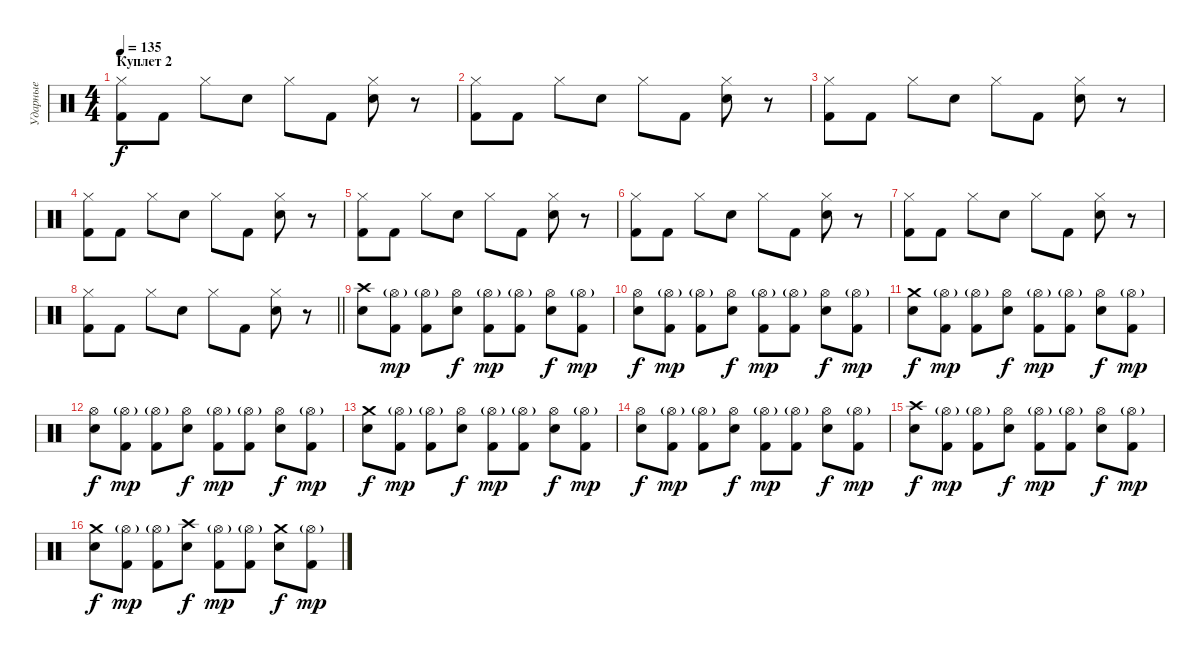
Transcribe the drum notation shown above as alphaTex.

\track ("Ударные" "Ударные") {instrument percussion}
\staff {score}
\articulation defaults
\ts (4 4)
\section ("" "Куплет 2")
\tempo 135
\clef neutral
\ks c
("Hi-Hat (closed)" "Kick (hit) 2").8{dy f} "Kick (hit) 2".8 "Hi-Hat (closed)".8 "Electric Snare (hit)".8 "Hi-Hat (closed)".8 "Kick (hit) 2".8 ("Hi-Hat (closed)" "Electric Snare (hit)").8 r.8 |
("Hi-Hat (closed)" "Kick (hit) 2").8 "Kick (hit) 2".8 "Hi-Hat (closed)".8 "Electric Snare (hit)".8 "Hi-Hat (closed)".8 "Kick (hit) 2".8 ("Hi-Hat (closed)" "Electric Snare (hit)").8 r.8 |
("Hi-Hat (closed)" "Kick (hit) 2").8 "Kick (hit) 2".8 "Hi-Hat (closed)".8 "Electric Snare (hit)".8 "Hi-Hat (closed)".8 "Kick (hit) 2".8 ("Hi-Hat (closed)" "Electric Snare (hit)").8 r.8 |
("Hi-Hat (closed)" "Kick (hit) 2").8 "Kick (hit) 2".8 "Hi-Hat (closed)".8 "Electric Snare (hit)".8 "Hi-Hat (closed)".8 "Kick (hit) 2".8 ("Hi-Hat (closed)" "Electric Snare (hit)").8 r.8 |
("Hi-Hat (closed)" "Kick (hit) 2").8 "Kick (hit) 2".8 "Hi-Hat (closed)".8 "Electric Snare (hit)".8 "Hi-Hat (closed)".8 "Kick (hit) 2".8 ("Hi-Hat (closed)" "Electric Snare (hit)").8 r.8 |
("Hi-Hat (closed)" "Kick (hit) 2").8 "Kick (hit) 2".8 "Hi-Hat (closed)".8 "Electric Snare (hit)".8 "Hi-Hat (closed)".8 "Kick (hit) 2".8 ("Hi-Hat (closed)" "Electric Snare (hit)").8 r.8 |
("Hi-Hat (closed)" "Kick (hit) 2").8 "Kick (hit) 2".8 "Hi-Hat (closed)".8 "Electric Snare (hit)".8 "Hi-Hat (closed)".8 "Kick (hit) 2".8 ("Hi-Hat (closed)" "Electric Snare (hit)").8 r.8 |
\barLineRight lightlight
("Hi-Hat (closed)" "Kick (hit) 2").8 "Kick (hit) 2".8 "Hi-Hat (closed)".8 "Electric Snare (hit)".8 "Hi-Hat (closed)".8 "Kick (hit) 2".8 ("Hi-Hat (closed)" "Electric Snare (hit)").8 r.8 |
\section ("" "")
("Crash high (hit)" "Electric Snare (hit)").8 ("Hi-Hat (open)"{g} "Kick (hit) 2").8{dy mp} ("Hi-Hat (open)"{g} "Kick (hit) 2").8 ("Hi-Hat (open)" "Electric Snare (hit)").8{dy f} ("Hi-Hat (open)"{g} "Kick (hit) 2").8{dy mp} ("Hi-Hat (open)"{g} "Kick (hit) 2").8 ("Hi-Hat (open)" "Electric Snare (hit)").8{dy f} ("Hi-Hat (open)"{g} "Kick (hit) 2").8{dy mp} |
("Hi-Hat (open)" "Electric Snare (hit)").8{dy f} ("Hi-Hat (open)"{g} "Kick (hit) 2").8{dy mp} ("Hi-Hat (open)"{g} "Kick (hit) 2").8 ("Hi-Hat (open)" "Electric Snare (hit)").8{dy f} ("Hi-Hat (open)"{g} "Kick (hit) 2").8{dy mp} ("Hi-Hat (open)"{g} "Kick (hit) 2").8 ("Hi-Hat (open)" "Electric Snare (hit)").8{dy f} ("Hi-Hat (open)"{g} "Kick (hit) 2").8{dy mp} |
("Crash medium (hit)" "Electric Snare (hit)").8{dy f} ("Hi-Hat (open)"{g} "Kick (hit) 2").8{dy mp} ("Hi-Hat (open)"{g} "Kick (hit) 2").8 ("Hi-Hat (open)" "Electric Snare (hit)").8{dy f} ("Hi-Hat (open)"{g} "Kick (hit) 2").8{dy mp} ("Hi-Hat (open)"{g} "Kick (hit) 2").8 ("Hi-Hat (open)" "Electric Snare (hit)").8{dy f} ("Hi-Hat (open)"{g} "Kick (hit) 2").8{dy mp} |
("Hi-Hat (open)" "Electric Snare (hit)").8{dy f} ("Hi-Hat (open)"{g} "Kick (hit) 2").8{dy mp} ("Hi-Hat (open)"{g} "Kick (hit) 2").8 ("Hi-Hat (open)" "Electric Snare (hit)").8{dy f} ("Hi-Hat (open)"{g} "Kick (hit) 2").8{dy mp} ("Hi-Hat (open)"{g} "Kick (hit) 2").8 ("Hi-Hat (open)" "Electric Snare (hit)").8{dy f} ("Hi-Hat (open)"{g} "Kick (hit) 2").8{dy mp} |
("Crash medium (hit)" "Electric Snare (hit)").8{dy f} ("Hi-Hat (open)"{g} "Kick (hit) 2").8{dy mp} ("Hi-Hat (open)"{g} "Kick (hit) 2").8 ("Hi-Hat (open)" "Electric Snare (hit)").8{dy f} ("Hi-Hat (open)"{g} "Kick (hit) 2").8{dy mp} ("Hi-Hat (open)"{g} "Kick (hit) 2").8 ("Hi-Hat (open)" "Electric Snare (hit)").8{dy f} ("Hi-Hat (open)"{g} "Kick (hit) 2").8{dy mp} |
("Hi-Hat (open)" "Electric Snare (hit)").8{dy f} ("Hi-Hat (open)"{g} "Kick (hit) 2").8{dy mp} ("Hi-Hat (open)"{g} "Kick (hit) 2").8 ("Hi-Hat (open)" "Electric Snare (hit)").8{dy f} ("Hi-Hat (open)"{g} "Kick (hit) 2").8{dy mp} ("Hi-Hat (open)"{g} "Kick (hit) 2").8 ("Hi-Hat (open)" "Electric Snare (hit)").8{dy f} ("Hi-Hat (open)"{g} "Kick (hit) 2").8{dy mp} |
("Crash high (hit)" "Electric Snare (hit)").8{dy f} ("Hi-Hat (open)"{g} "Kick (hit) 2").8{dy mp} ("Hi-Hat (open)"{g} "Kick (hit) 2").8 ("Hi-Hat (open)" "Electric Snare (hit)").8{dy f} ("Hi-Hat (open)"{g} "Kick (hit) 2").8{dy mp} ("Hi-Hat (open)"{g} "Kick (hit) 2").8 ("Hi-Hat (open)" "Electric Snare (hit)").8{dy f} ("Hi-Hat (open)"{g} "Kick (hit) 2").8{dy mp} |
("Crash medium (hit)" "Electric Snare (hit)").8{dy f} ("Hi-Hat (open)"{g} "Kick (hit) 2").8{dy mp} ("Hi-Hat (open)"{g} "Kick (hit) 2").8 ("Crash high (hit)" "Electric Snare (hit)").8{dy f} ("Hi-Hat (open)"{g} "Kick (hit) 2").8{dy mp} ("Hi-Hat (open)"{g} "Kick (hit) 2").8 ("Crash medium (hit)" "Electric Snare (hit)").8{dy f} ("Hi-Hat (open)"{g} "Kick (hit) 2").8{dy mp}
